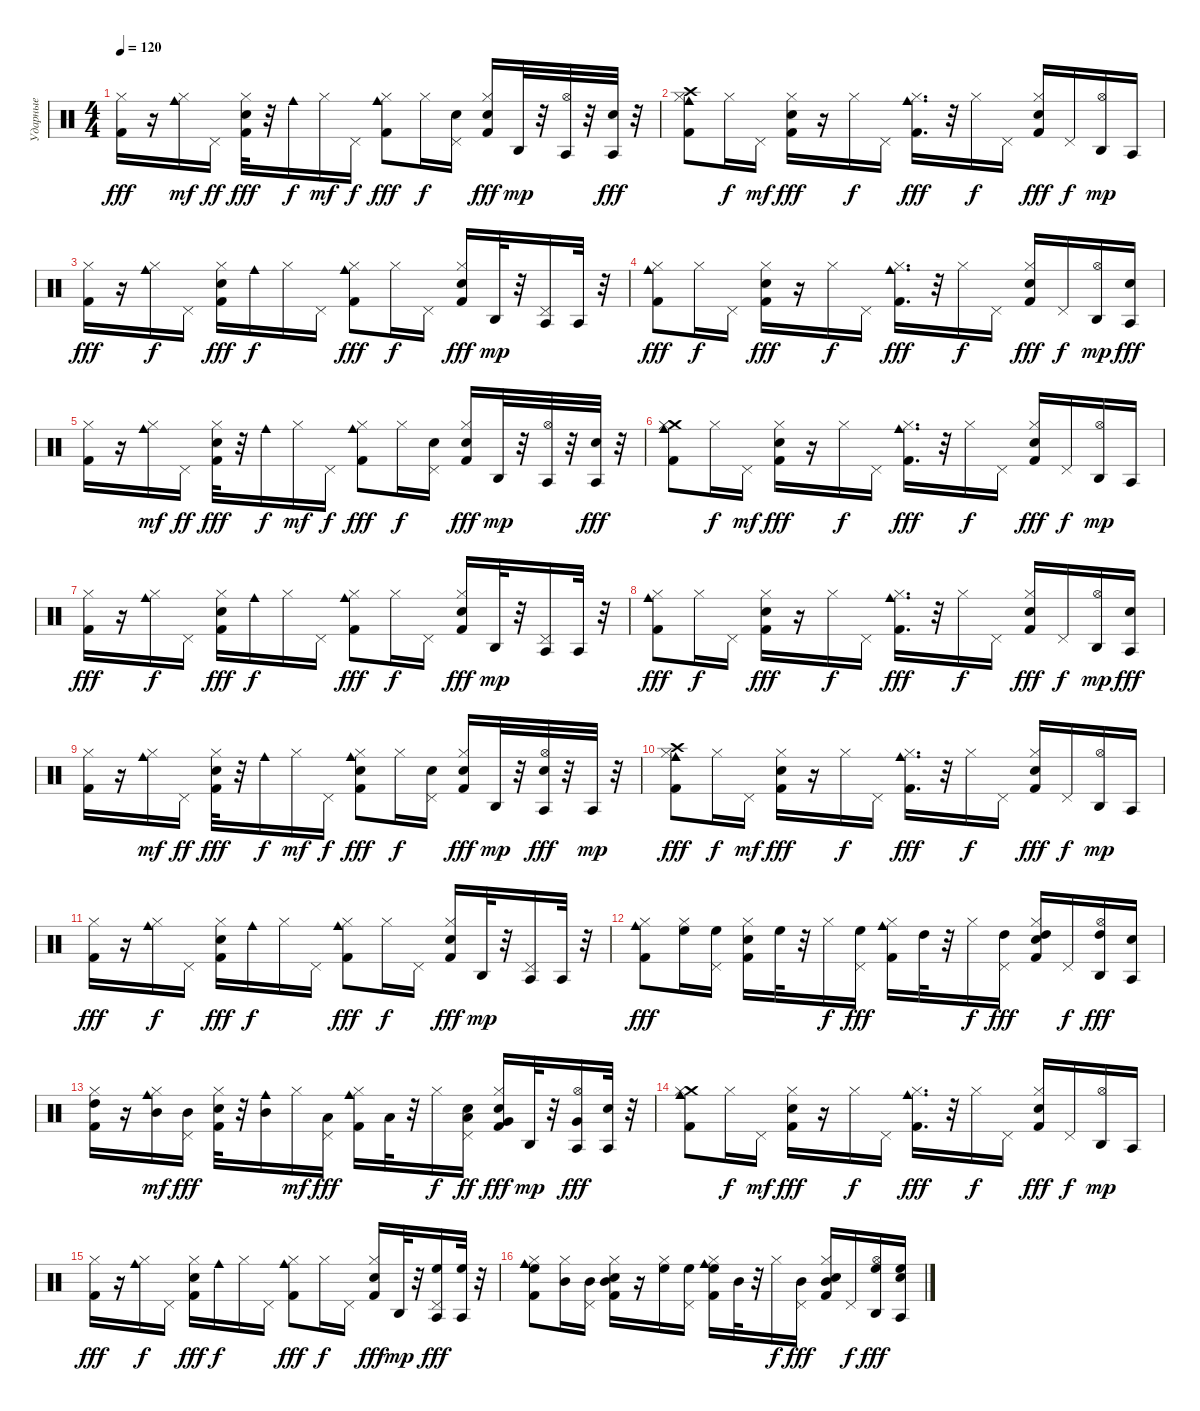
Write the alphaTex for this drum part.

\track ("Ударные" "Ударные") {instrument percussion}
\staff {score}
\articulation defaults
\ts (4 4)
\tempo 120
\clef neutral
\ks c
("Kick (hit) 2" "Hi-Hat (closed)").16{dy fff} r.16 ("Cowbell medium (hit)" "Hi-Hat (closed)").16{dy mf} "Pedal Hi-Hat (hit)".16{dy ff} ("Electric Snare (hit)" "Kick (hit) 2" "Hi-Hat (closed)").32{dy fff} r.32 "Cowbell medium (hit)".16{dy f} "Hi-Hat (closed)".16{dy mf} "Pedal Hi-Hat (hit)".16{dy f} ("Cowbell medium (hit)" "Hi-Hat (closed)" "Kick (hit) 2").8{dy fff} "Hi-Hat (closed)".16{dy f} ("Pedal Hi-Hat (hit)" "Electric Snare (hit)").16 ("Hi-Hat (closed)" "Kick (hit) 2" "Electric Snare (hit)").16{dy fff} "Agogo high (hit)".32{dy mp} r.32 ("Agogo tow (hit)" "Hi-Hat (open)").32 r.32 ("Agogo tow (hit)" "Electric Snare (hit)").32{dy fff} r.32 |
("Cowbell medium (hit)" "Crash high (hit)" "Hi-Hat (closed)" "Kick (hit) 2").8 "Hi-Hat (closed)".16{dy f} "Pedal Hi-Hat (hit)".16{dy mf} ("Electric Snare (hit)" "Kick (hit) 2" "Hi-Hat (closed)").16{dy fff} r.16 "Hi-Hat (closed)".16{dy f} "Pedal Hi-Hat (hit)".16 ("Cowbell medium (hit)" "Kick (hit) 2" "Hi-Hat (closed)").16{d dy fff} r.32 "Hi-Hat (closed)".16{dy f} "Pedal Hi-Hat (hit)".16 ("Kick (hit) 2" "Electric Snare (hit)" "Hi-Hat (closed)").16{dy fff} "Pedal Hi-Hat (hit)".16{dy f} ("Agogo high (hit)" "Hi-Hat (open)").16{dy mp} "Agogo tow (hit)".16 |
("Kick (hit) 2" "Hi-Hat (closed)").16{dy fff} r.16 ("Cowbell medium (hit)" "Hi-Hat (closed)").16{dy f} "Pedal Hi-Hat (hit)".16 ("Hi-Hat (closed)" "Kick (hit) 2" "Electric Snare (hit)").16{dy fff} "Cowbell medium (hit)".16{dy f} "Hi-Hat (closed)".16 "Pedal Hi-Hat (hit)".16 ("Cowbell medium (hit)" "Kick (hit) 2" "Hi-Hat (closed)").8{dy fff} "Hi-Hat (closed)".16{dy f} "Pedal Hi-Hat (hit)".16 ("Electric Snare (hit)" "Kick (hit) 2" "Hi-Hat (closed)").16{dy fff} "Agogo high (hit)".32{dy mp} r.32 ("Agogo tow (hit)" "Pedal Hi-Hat (hit)").16 "Agogo tow (hit)".32 r.32 |
("Cowbell medium (hit)" "Kick (hit) 2" "Hi-Hat (closed)").8{dy fff} "Hi-Hat (closed)".16{dy f} "Pedal Hi-Hat (hit)".16 ("Electric Snare (hit)" "Kick (hit) 2" "Hi-Hat (closed)").16{dy fff} r.16 "Hi-Hat (closed)".16{dy f} "Pedal Hi-Hat (hit)".16 ("Cowbell medium (hit)" "Hi-Hat (closed)" "Kick (hit) 2").16{d dy fff} r.32 "Hi-Hat (closed)".16{dy f} "Pedal Hi-Hat (hit)".16 ("Kick (hit) 2" "Electric Snare (hit)" "Hi-Hat (closed)").16{dy fff} "Pedal Hi-Hat (hit)".16{dy f} ("Agogo high (hit)" "Hi-Hat (open)").16{dy mp} ("Agogo tow (hit)" "Electric Snare (hit)").16{dy fff} |
("Kick (hit) 2" "Hi-Hat (closed)").16 r.16 ("Cowbell medium (hit)" "Hi-Hat (closed)").16{dy mf} "Pedal Hi-Hat (hit)".16{dy ff} ("Electric Snare (hit)" "Kick (hit) 2" "Hi-Hat (closed)").32{dy fff} r.32 "Cowbell medium (hit)".16{dy f} "Hi-Hat (closed)".16{dy mf} "Pedal Hi-Hat (hit)".16{dy f} ("Cowbell medium (hit)" "Hi-Hat (closed)" "Kick (hit) 2").8{dy fff} "Hi-Hat (closed)".16{dy f} ("Pedal Hi-Hat (hit)" "Electric Snare (hit)").16 ("Hi-Hat (closed)" "Kick (hit) 2" "Electric Snare (hit)").16{dy fff} "Agogo high (hit)".32{dy mp} r.32 ("Agogo tow (hit)" "Hi-Hat (open)").32 r.32 ("Agogo tow (hit)" "Electric Snare (hit)").32{dy fff} r.32 |
("Cowbell medium (hit)" "Crash medium (hit)" "Hi-Hat (closed)" "Kick (hit) 2").8 "Hi-Hat (closed)".16{dy f} "Pedal Hi-Hat (hit)".16{dy mf} ("Electric Snare (hit)" "Kick (hit) 2" "Hi-Hat (closed)").16{dy fff} r.16 "Hi-Hat (closed)".16{dy f} "Pedal Hi-Hat (hit)".16 ("Cowbell medium (hit)" "Kick (hit) 2" "Hi-Hat (closed)").16{d dy fff} r.32 "Hi-Hat (closed)".16{dy f} "Pedal Hi-Hat (hit)".16 ("Kick (hit) 2" "Electric Snare (hit)" "Hi-Hat (closed)").16{dy fff} "Pedal Hi-Hat (hit)".16{dy f} ("Agogo high (hit)" "Hi-Hat (open)").16{dy mp} "Agogo tow (hit)".16 |
("Kick (hit) 2" "Hi-Hat (closed)").16{dy fff} r.16 ("Cowbell medium (hit)" "Hi-Hat (closed)").16{dy f} "Pedal Hi-Hat (hit)".16 ("Hi-Hat (closed)" "Kick (hit) 2" "Electric Snare (hit)").16{dy fff} "Cowbell medium (hit)".16{dy f} "Hi-Hat (closed)".16 "Pedal Hi-Hat (hit)".16 ("Cowbell medium (hit)" "Kick (hit) 2" "Hi-Hat (closed)").8{dy fff} "Hi-Hat (closed)".16{dy f} "Pedal Hi-Hat (hit)".16 ("Electric Snare (hit)" "Kick (hit) 2" "Hi-Hat (closed)").16{dy fff} "Agogo high (hit)".32{dy mp} r.32 ("Agogo tow (hit)" "Pedal Hi-Hat (hit)").16 "Agogo tow (hit)".32 r.32 |
("Cowbell medium (hit)" "Kick (hit) 2" "Hi-Hat (closed)").8{dy fff} "Hi-Hat (closed)".16{dy f} "Pedal Hi-Hat (hit)".16 ("Electric Snare (hit)" "Kick (hit) 2" "Hi-Hat (closed)").16{dy fff} r.16 "Hi-Hat (closed)".16{dy f} "Pedal Hi-Hat (hit)".16 ("Cowbell medium (hit)" "Hi-Hat (closed)" "Kick (hit) 2").16{d dy fff} r.32 "Hi-Hat (closed)".16{dy f} "Pedal Hi-Hat (hit)".16 ("Kick (hit) 2" "Electric Snare (hit)" "Hi-Hat (closed)").16{dy fff} "Pedal Hi-Hat (hit)".16{dy f} ("Agogo high (hit)" "Hi-Hat (open)").16{dy mp} ("Agogo tow (hit)" "Electric Snare (hit)").16{dy fff} |
("Kick (hit) 2" "Hi-Hat (closed)").16 r.16 ("Cowbell medium (hit)" "Hi-Hat (closed)").16{dy mf} "Pedal Hi-Hat (hit)".16{dy ff} ("Electric Snare (hit)" "Kick (hit) 2" "Hi-Hat (closed)").32{dy fff} r.32 "Cowbell medium (hit)".16{dy f} "Hi-Hat (closed)".16{dy mf} "Pedal Hi-Hat (hit)".16{dy f} ("Cowbell medium (hit)" "Electric Snare (hit)" "Hi-Hat (closed)" "Kick (hit) 2").8{dy fff} "Hi-Hat (closed)".16{dy f} ("Pedal Hi-Hat (hit)" "Electric Snare (hit)").16 ("Hi-Hat (closed)" "Kick (hit) 2" "Electric Snare (hit)").16{dy fff} "Agogo high (hit)".32{dy mp} r.32 ("Agogo tow (hit)" "Electric Snare (hit)" "Hi-Hat (open)").32{dy fff} r.32 "Agogo tow (hit)".32{dy mp} r.32 |
("Cowbell medium (hit)" "Crash high (hit)" "Hi-Hat (closed)" "Kick (hit) 2").8{dy fff} "Hi-Hat (closed)".16{dy f} "Pedal Hi-Hat (hit)".16{dy mf} ("Electric Snare (hit)" "Kick (hit) 2" "Hi-Hat (closed)").16{dy fff} r.16 "Hi-Hat (closed)".16{dy f} "Pedal Hi-Hat (hit)".16 ("Cowbell medium (hit)" "Kick (hit) 2" "Hi-Hat (closed)").16{d dy fff} r.32 "Hi-Hat (closed)".16{dy f} "Pedal Hi-Hat (hit)".16 ("Kick (hit) 2" "Electric Snare (hit)" "Hi-Hat (closed)").16{dy fff} "Pedal Hi-Hat (hit)".16{dy f} ("Agogo high (hit)" "Hi-Hat (open)").16{dy mp} "Agogo tow (hit)".16 |
("Kick (hit) 2" "Hi-Hat (closed)").16{dy fff} r.16 ("Cowbell medium (hit)" "Hi-Hat (closed)").16{dy f} "Pedal Hi-Hat (hit)".16 ("Hi-Hat (closed)" "Kick (hit) 2" "Electric Snare (hit)").16{dy fff} "Cowbell medium (hit)".16{dy f} "Hi-Hat (closed)".16 "Pedal Hi-Hat (hit)".16 ("Cowbell medium (hit)" "Kick (hit) 2" "Hi-Hat (closed)").8{dy fff} "Hi-Hat (closed)".16{dy f} "Pedal Hi-Hat (hit)".16 ("Electric Snare (hit)" "Kick (hit) 2" "Hi-Hat (closed)").16{dy fff} "Agogo high (hit)".32{dy mp} r.32 ("Agogo tow (hit)" "Pedal Hi-Hat (hit)").16 "Agogo tow (hit)".32 r.32 |
("Cowbell medium (hit)" "Kick (hit) 2" "Hi-Hat (closed)").8{dy fff volume 16} ("Hi-Hat (closed)" "High Floor Tom (hit)").16 ("High Floor Tom (hit)" "Pedal Hi-Hat (hit)").16 ("Electric Snare (hit)" "Kick (hit) 2" "Hi-Hat (closed)").16 "High Floor Tom (hit)".32 r.32 "Hi-Hat (closed)".16{dy f} ("High Floor Tom (hit)" "Pedal Hi-Hat (hit)").16{dy fff} ("Cowbell medium (hit)" "Hi-Hat (closed)" "Kick (hit) 2").16 "High Tom (hit)".32 r.32 "Hi-Hat (closed)".16{dy f} ("High Tom (hit)" "Pedal Hi-Hat (hit)").16{dy fff} ("High Tom (hit)" "Kick (hit) 2" "Electric Snare (hit)" "Hi-Hat (closed)").16 "Pedal Hi-Hat (hit)".16{dy f} ("Agogo high (hit)" "Hi-Hat (open)" "High Tom (hit)").16{dy fff} ("Agogo tow (hit)" "Electric Snare (hit)").16 |
("High Tom (hit)" "Kick (hit) 2" "Hi-Hat (closed)").16{volume 16} r.16 ("Cowbell medium (hit)" "Mid Tom (hit)" "Hi-Hat (closed)").16{dy mf} ("Pedal Hi-Hat (hit)" "Mid Tom (hit)").16{dy fff} ("Electric Snare (hit)" "Kick (hit) 2" "Hi-Hat (closed)").32 r.32 ("Cowbell medium (hit)" "Mid Tom (hit)").16 "Hi-Hat (closed)".16{dy mf} ("Pedal Hi-Hat (hit)" "Low Tom (hit)").16{dy fff} ("Cowbell medium (hit)" "Hi-Hat (closed)" "Kick (hit) 2").16 "Low Tom (hit)".32 r.32 "Hi-Hat (closed)".16{dy f} ("Low Tom (hit)" "Pedal Hi-Hat (hit)" "Electric Snare (hit)").16{dy ff} ("Very Low Tom (hit)" "Hi-Hat (closed)" "Kick (hit) 2" "Electric Snare (hit)").16{dy fff} "Agogo high (hit)".32{dy mp} r.32 ("Agogo tow (hit)" "Very Low Tom (hit)" "Hi-Hat (open)").16{dy fff} ("Agogo tow (hit)" "Electric Snare (hit)").32 r.32 |
("Cowbell medium (hit)" "Crash medium (hit)" "Hi-Hat (closed)" "Kick (hit) 2").8 "Hi-Hat (closed)".16{dy f} "Pedal Hi-Hat (hit)".16{dy mf} ("Electric Snare (hit)" "Kick (hit) 2" "Hi-Hat (closed)").16{dy fff} r.16 "Hi-Hat (closed)".16{dy f} "Pedal Hi-Hat (hit)".16 ("Cowbell medium (hit)" "Kick (hit) 2" "Hi-Hat (closed)").16{d dy fff} r.32 "Hi-Hat (closed)".16{dy f} "Pedal Hi-Hat (hit)".16 ("Kick (hit) 2" "Electric Snare (hit)" "Hi-Hat (closed)").16{dy fff} "Pedal Hi-Hat (hit)".16{dy f} ("Agogo high (hit)" "Hi-Hat (open)").16{dy mp} "Agogo tow (hit)".16 |
("Kick (hit) 2" "Hi-Hat (closed)").16{dy fff} r.16 ("Cowbell medium (hit)" "Hi-Hat (closed)").16{dy f} "Pedal Hi-Hat (hit)".16 ("Hi-Hat (closed)" "Kick (hit) 2" "Electric Snare (hit)").16{dy fff} "Cowbell medium (hit)".16{dy f} "Hi-Hat (closed)".16 "Pedal Hi-Hat (hit)".16 ("Cowbell medium (hit)" "Kick (hit) 2" "Hi-Hat (closed)").8{dy fff} "Hi-Hat (closed)".16{dy f} "Pedal Hi-Hat (hit)".16 ("Electric Snare (hit)" "Kick (hit) 2" "Hi-Hat (closed)").16{dy fff} "Agogo high (hit)".32{dy mp} r.32 ("Agogo tow (hit)" "Pedal Hi-Hat (hit)" "High Floor Tom (hit)").16{dy fff} ("Agogo tow (hit)" "High Floor Tom (hit)").32 r.32 |
("Cowbell medium (hit)" "Kick (hit) 2" "Hi-Hat (closed)" "High Floor Tom (hit)").8{volume 16} ("Mid Tom (hit)" "Hi-Hat (closed)").16 ("Pedal Hi-Hat (hit)" "Mid Tom (hit)").16 ("Mid Tom (hit)" "Electric Snare (hit)" "Kick (hit) 2" "Hi-Hat (closed)").16 r.16 ("High Floor Tom (hit)" "Hi-Hat (closed)").16 ("High Floor Tom (hit)" "Pedal Hi-Hat (hit)").16 ("Cowbell medium (hit)" "High Floor Tom (hit)" "Hi-Hat (closed)" "Kick (hit) 2").16 "Mid Tom (hit)".32 r.32 "Hi-Hat (closed)".16{dy f} ("Pedal Hi-Hat (hit)" "Mid Tom (hit)").16{dy fff} ("Kick (hit) 2" "Electric Snare (hit)" "Hi-Hat (closed)" "Mid Tom (hit)").16 "Pedal Hi-Hat (hit)".16{dy f} ("Agogo high (hit)" "High Floor Tom (hit)" "Hi-Hat (open)").16{dy fff} ("Agogo tow (hit)" "High Floor Tom (hit)" "Electric Snare (hit)").16
